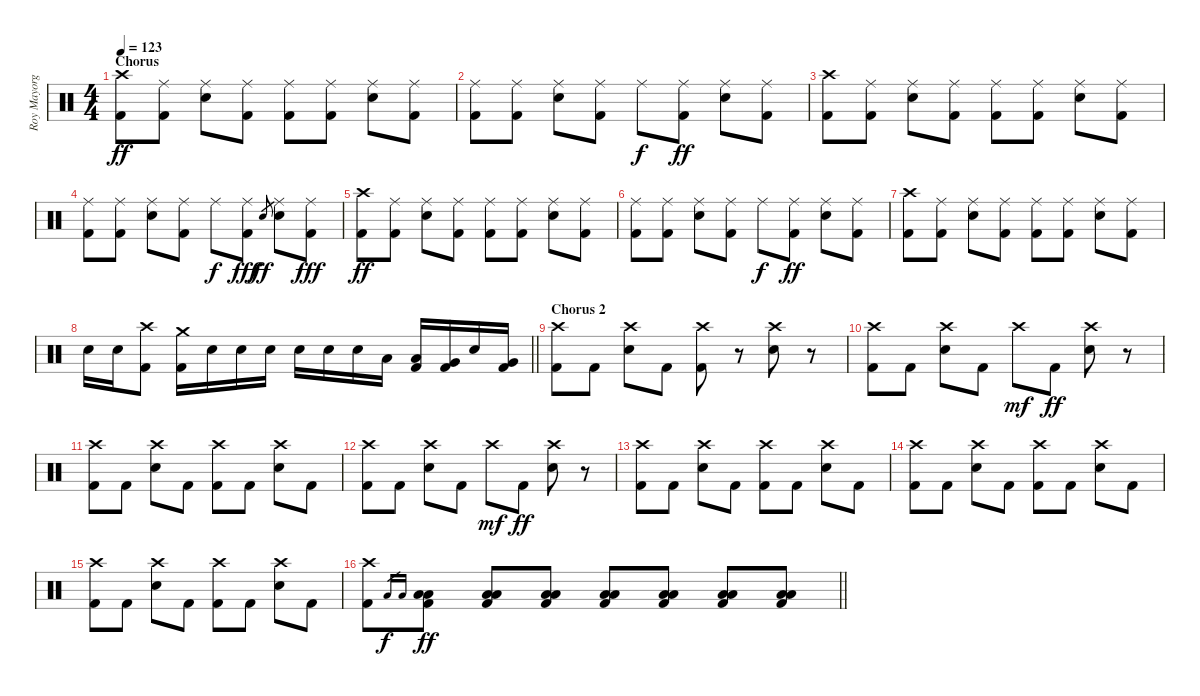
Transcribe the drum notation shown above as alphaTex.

\track ("Roy Mayorga (Drums)" "Roy Mayorg") {instrument percussion}
\staff {score}
\articulation defaults
\ts (4 4)
\section ("" "Chorus")
\tempo 123
\clef neutral
\ks c
("Crash high (hit)" "Kick (hit) 2").8{dy ff} ("Ride (middle)" "Kick (hit) 2").8 ("Ride (middle)" "Electric Snare (hit)").8 ("Ride (middle)" "Kick (hit) 2").8 ("Ride (middle)" "Kick (hit) 2").8 ("Ride (middle)" "Kick (hit) 2").8 ("Ride (middle)" "Electric Snare (hit)").8 ("Ride (middle)" "Kick (hit) 2").8 |
("Ride (middle)" "Kick (hit) 2").8 ("Ride (middle)" "Kick (hit) 2").8 ("Ride (middle)" "Electric Snare (hit)").8 ("Ride (middle)" "Kick (hit) 2").8 "Ride (middle)".8{dy f} ("Ride (middle)" "Kick (hit) 2").8{dy ff} ("Ride (middle)" "Electric Snare (hit)").8 ("Ride (middle)" "Kick (hit) 2").8 |
("Crash high (hit)" "Kick (hit) 2").8 ("Ride (middle)" "Kick (hit) 2").8 ("Ride (middle)" "Electric Snare (hit)").8 ("Ride (middle)" "Kick (hit) 2").8 ("Ride (middle)" "Kick (hit) 2").8 ("Ride (middle)" "Kick (hit) 2").8 ("Ride (middle)" "Electric Snare (hit)").8 ("Ride (middle)" "Kick (hit) 2").8 |
("Ride (middle)" "Kick (hit) 2").8 ("Ride (middle)" "Kick (hit) 2").8 ("Ride (middle)" "Electric Snare (hit)").8 ("Ride (middle)" "Kick (hit) 2").8 "Ride (middle)".8{dy f} ("Ride (middle)" "Kick (hit) 2").8{dy fff} "Electric Snare (hit)".8{gr dy ff} ("Ride (middle)" "Electric Snare (hit)").8 ("Ride (middle)" "Kick (hit) 2").8{dy fff} |
("Crash high (hit)" "Kick (hit) 2").8{dy ff} ("Ride (middle)" "Kick (hit) 2").8 ("Ride (middle)" "Electric Snare (hit)").8 ("Ride (middle)" "Kick (hit) 2").8 ("Ride (middle)" "Kick (hit) 2").8 ("Ride (middle)" "Kick (hit) 2").8 ("Ride (middle)" "Electric Snare (hit)").8 ("Ride (middle)" "Kick (hit) 2").8 |
("Ride (middle)" "Kick (hit) 2").8 ("Ride (middle)" "Kick (hit) 2").8 ("Ride (middle)" "Electric Snare (hit)").8 ("Ride (middle)" "Kick (hit) 2").8 "Ride (middle)".8{dy f} ("Ride (middle)" "Kick (hit) 2").8{dy ff} ("Ride (middle)" "Electric Snare (hit)").8 ("Ride (middle)" "Kick (hit) 2").8 |
("Crash high (hit)" "Kick (hit) 2").8 ("Ride (middle)" "Kick (hit) 2").8 ("Ride (middle)" "Electric Snare (hit)").8 ("Ride (middle)" "Kick (hit) 2").8 ("Ride (middle)" "Kick (hit) 2").8 ("Ride (middle)" "Kick (hit) 2").8 ("Ride (middle)" "Electric Snare (hit)").8 ("Ride (middle)" "Kick (hit) 2").8 |
\barLineRight lightlight "Electric Snare (hit)".16 "Electric Snare (hit)".16
("Crash high (hit)" "Kick (hit) 2").8 ("Crash medium (hit)" "Kick (hit) 2").16 "Electric Snare (hit)".16 "Electric Snare (hit)".16 "Electric Snare (hit)".16 "Electric Snare (hit)".16 "Electric Snare (hit)".16 "Electric Snare (hit)".16 "Low Tom (hit)".16 ("Low Tom (hit)" "Kick (hit) 2").16 ("Very Low Tom (hit)" "Kick (hit) 2").16 "Electric Snare (hit)".16 ("Very Low Tom (hit)" "Kick (hit) 2").16 |
\section ("" "Chorus 2 ")
("Crash high (hit)" "Kick (hit) 2").8 "Kick (hit) 2".8 ("Crash high (hit)" "Electric Snare (hit)").8 "Kick (hit) 2".8 ("Crash high (hit)" "Kick (hit) 2").8 r.8 ("Crash high (hit)" "Electric Snare (hit)").8 r.8 |
("Crash high (hit)" "Kick (hit) 2").8 "Kick (hit) 2".8 ("Crash high (hit)" "Electric Snare (hit)").8 "Kick (hit) 2".8 "Crash high (hit)".8{dy mf} "Kick (hit) 2".8{dy ff} ("Crash high (hit)" "Electric Snare (hit)").8 r.8 |
("Crash high (hit)" "Kick (hit) 2").8 "Kick (hit) 2".8 ("Crash high (hit)" "Electric Snare (hit)").8 "Kick (hit) 2".8 ("Crash high (hit)" "Kick (hit) 2").8 "Kick (hit) 2".8 ("Crash high (hit)" "Electric Snare (hit)").8 "Kick (hit) 2".8 |
("Crash high (hit)" "Kick (hit) 2").8 "Kick (hit) 2".8 ("Crash high (hit)" "Electric Snare (hit)").8 "Kick (hit) 2".8 "Crash high (hit)".8{dy mf} "Kick (hit) 2".8{dy ff} ("Crash high (hit)" "Electric Snare (hit)").8 r.8 |
("Crash high (hit)" "Kick (hit) 2").8 "Kick (hit) 2".8 ("Crash high (hit)" "Electric Snare (hit)").8 "Kick (hit) 2".8 ("Crash high (hit)" "Kick (hit) 2").8 "Kick (hit) 2".8 ("Crash high (hit)" "Electric Snare (hit)").8 "Kick (hit) 2".8 |
("Crash high (hit)" "Kick (hit) 2").8 "Kick (hit) 2".8 ("Crash high (hit)" "Electric Snare (hit)").8 "Kick (hit) 2".8 ("Crash high (hit)" "Kick (hit) 2").8 "Kick (hit) 2".8 ("Crash high (hit)" "Electric Snare (hit)").8 "Kick (hit) 2".8 |
("Crash high (hit)" "Kick (hit) 2").8 "Kick (hit) 2".8 ("Crash high (hit)" "Electric Snare (hit)").8 "Kick (hit) 2".8 ("Crash high (hit)" "Kick (hit) 2").8 "Kick (hit) 2".8 ("Crash high (hit)" "Electric Snare (hit)").8 "Kick (hit) 2".8 |
\barLineRight lightlight
("Crash high (hit)" "Kick (hit) 2").8 "Low Tom (hit)".16{gr dy f} "Low Floor Tom (hit)".16{gr} ("Low Tom (hit)" "Low Floor Tom (hit)" "Kick (hit) 2").8{dy ff} ("Low Tom (hit)" "Low Floor Tom (hit)" "Kick (hit) 2").8 ("Low Tom (hit)" "Low Floor Tom (hit)" "Kick (hit) 2").8 ("Low Tom (hit)" "Low Floor Tom (hit)" "Kick (hit) 2").8 ("Low Tom (hit)" "Low Floor Tom (hit)" "Kick (hit) 2").8 ("Low Tom (hit)" "Low Floor Tom (hit)" "Kick (hit) 2").8 ("Low Tom (hit)" "Low Floor Tom (hit)" "Kick (hit) 2").8
